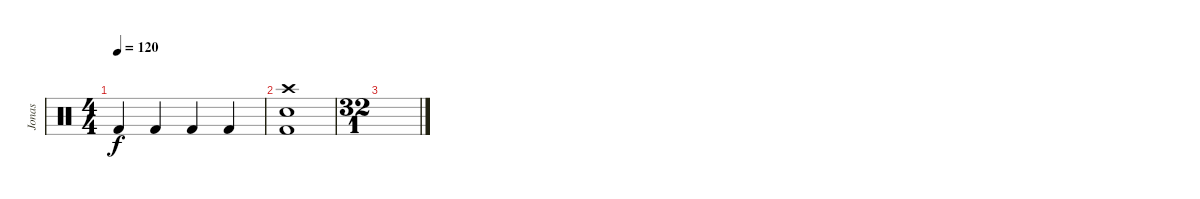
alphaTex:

\track ("Jonas" "Jonas") {instrument percussion}
\staff {score}
\articulation defaults
\ts (4 4)
\tempo 120
\clef neutral
\ks c "Kick (hit) 2".4{dy f} "Kick (hit) 2".4 "Kick (hit) 2".4 "Kick (hit) 2".4
|
("Crash high (hit)" "Snare (hit) 2" "Kick (hit) 2").1 |
\ts (32 1)
